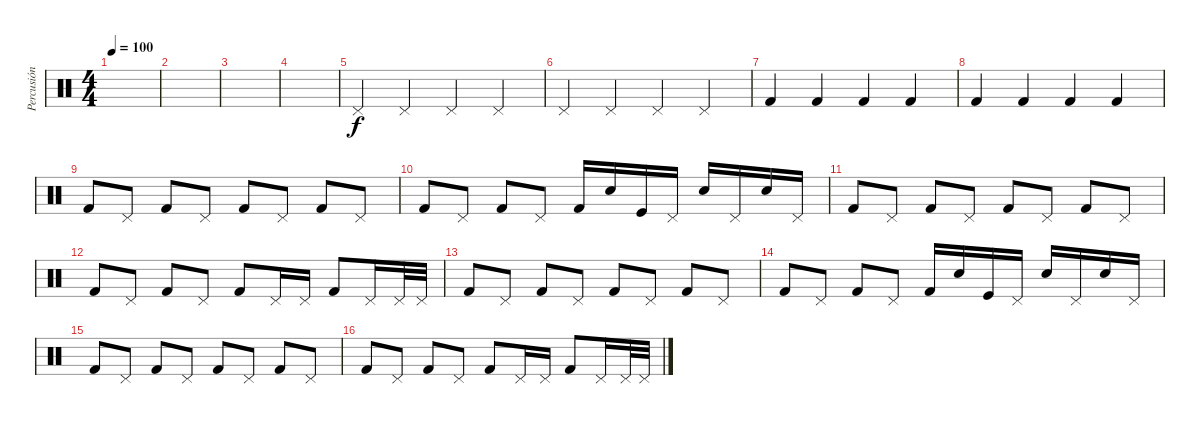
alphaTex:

\track ("Percusión" "Percusión") {instrument percussion}
\staff {score}
\articulation defaults
\ts (4 4)
\tempo 100
\clef neutral
\ks c
|
|
|
|
"Pedal Hi-Hat (hit)".4 "Pedal Hi-Hat (hit)".4 "Pedal Hi-Hat (hit)".4 "Pedal Hi-Hat (hit)".4 |
"Pedal Hi-Hat (hit)".4 "Pedal Hi-Hat (hit)".4 "Pedal Hi-Hat (hit)".4 "Pedal Hi-Hat (hit)".4 |
"Kick (hit) 2".4 "Kick (hit) 2".4 "Kick (hit) 2".4 "Kick (hit) 2".4 |
"Kick (hit) 2".4 "Kick (hit) 2".4 "Kick (hit) 2".4 "Kick (hit) 2".4 |
"Kick (hit) 2".8 "Pedal Hi-Hat (hit)".8 "Kick (hit) 2".8 "Pedal Hi-Hat (hit)".8 "Kick (hit) 2".8 "Pedal Hi-Hat (hit)".8 "Kick (hit) 2".8 "Pedal Hi-Hat (hit)".8 |
"Kick (hit) 2".8 "Pedal Hi-Hat (hit)".8 "Kick (hit) 2".8 "Pedal Hi-Hat (hit)".8 "Kick (hit) 2".16 "Snare (hit) 2".16 "Kick (hit)".16 "Pedal Hi-Hat (hit)".16 "Snare (hit) 2".16 "Pedal Hi-Hat (hit)".16 "Snare (hit) 2".16 "Pedal Hi-Hat (hit)".16 |
"Kick (hit) 2".8 "Pedal Hi-Hat (hit)".8 "Kick (hit) 2".8 "Pedal Hi-Hat (hit)".8 "Kick (hit) 2".8 "Pedal Hi-Hat (hit)".8 "Kick (hit) 2".8 "Pedal Hi-Hat (hit)".8 |
"Kick (hit) 2".8 "Pedal Hi-Hat (hit)".8 "Kick (hit) 2".8 "Pedal Hi-Hat (hit)".8 "Kick (hit) 2".8 "Pedal Hi-Hat (hit)".16 "Pedal Hi-Hat (hit)".16 "Kick (hit) 2".8 "Pedal Hi-Hat (hit)".16 "Pedal Hi-Hat (hit)".32 "Pedal Hi-Hat (hit)".32 |
"Kick (hit) 2".8 "Pedal Hi-Hat (hit)".8 "Kick (hit) 2".8 "Pedal Hi-Hat (hit)".8 "Kick (hit) 2".8 "Pedal Hi-Hat (hit)".8 "Kick (hit) 2".8 "Pedal Hi-Hat (hit)".8 |
"Kick (hit) 2".8 "Pedal Hi-Hat (hit)".8 "Kick (hit) 2".8 "Pedal Hi-Hat (hit)".8 "Kick (hit) 2".16 "Snare (hit) 2".16 "Kick (hit)".16 "Pedal Hi-Hat (hit)".16 "Snare (hit) 2".16 "Pedal Hi-Hat (hit)".16 "Snare (hit) 2".16 "Pedal Hi-Hat (hit)".16 |
"Kick (hit) 2".8 "Pedal Hi-Hat (hit)".8 "Kick (hit) 2".8 "Pedal Hi-Hat (hit)".8 "Kick (hit) 2".8 "Pedal Hi-Hat (hit)".8 "Kick (hit) 2".8 "Pedal Hi-Hat (hit)".8 |
"Kick (hit) 2".8 "Pedal Hi-Hat (hit)".8 "Kick (hit) 2".8 "Pedal Hi-Hat (hit)".8 "Kick (hit) 2".8 "Pedal Hi-Hat (hit)".16 "Pedal Hi-Hat (hit)".16 "Kick (hit) 2".8 "Pedal Hi-Hat (hit)".16 "Pedal Hi-Hat (hit)".32 "Pedal Hi-Hat (hit)".32
